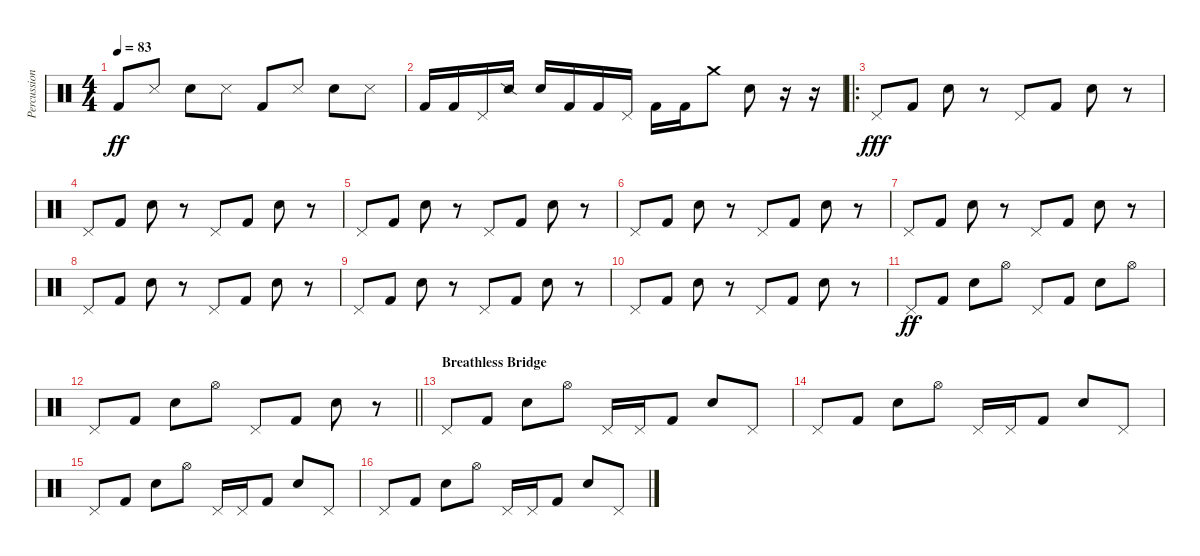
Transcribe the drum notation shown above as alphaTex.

\track ("Percussion" "Percussion") {instrument percussion}
\staff {score}
\articulation defaults
\ts (4 4)
\tempo 83
\clef neutral
\ks c "Kick (hit) 2".8{dy ff} "Snare (side stick) 3".8 "Hand Clap (hit)".8 "Snare (side stick) 3".8 "Kick (hit) 2".8 "Snare (side stick) 3".8 "Hand Clap (hit)".8 "Snare (side stick) 3".8
|
"Kick (hit) 2".16 "Kick (hit) 2".16 "Pedal Hi-Hat (hit)".16 "Snare (side stick) 2".16 "Snare (hit) 2".16 "Kick (hit) 2".16 "Kick (hit) 2".16 "Pedal Hi-Hat (hit)".16 "Kick (hit) 2".16 "Kick (hit) 2".16 "Crash medium (hit)".8 "Hand Clap (hit)".8 r.16 r.16 |
\ro "Pedal Hi-Hat (hit)".8{dy fff} "Kick (hit) 2".8 "Hand Clap (hit)".8
r.8 "Pedal Hi-Hat (hit)".8 "Kick (hit) 2".8 "Hand Clap (hit)".8 r.8 |
"Pedal Hi-Hat (hit)".8 "Kick (hit) 2".8 "Hand Clap (hit)".8 r.8 "Pedal Hi-Hat (hit)".8 "Kick (hit) 2".8 "Hand Clap (hit)".8 r.8 |
"Pedal Hi-Hat (hit)".8 "Kick (hit) 2".8 "Hand Clap (hit)".8 r.8 "Pedal Hi-Hat (hit)".8 "Kick (hit) 2".8 "Hand Clap (hit)".8 r.8 |
"Pedal Hi-Hat (hit)".8 "Kick (hit) 2".8 "Hand Clap (hit)".8 r.8 "Pedal Hi-Hat (hit)".8 "Kick (hit) 2".8 "Hand Clap (hit)".8 r.8 |
"Pedal Hi-Hat (hit)".8 "Kick (hit) 2".8 "Hand Clap (hit)".8 r.8 "Pedal Hi-Hat (hit)".8 "Kick (hit) 2".8 "Hand Clap (hit)".8 r.8 |
"Pedal Hi-Hat (hit)".8 "Kick (hit) 2".8 "Hand Clap (hit)".8 r.8 "Pedal Hi-Hat (hit)".8 "Kick (hit) 2".8 "Hand Clap (hit)".8 r.8 |
"Pedal Hi-Hat (hit)".8 "Kick (hit) 2".8 "Hand Clap (hit)".8 r.8 "Pedal Hi-Hat (hit)".8 "Kick (hit) 2".8 "Hand Clap (hit)".8 r.8 |
"Pedal Hi-Hat (hit)".8 "Kick (hit) 2".8 "Hand Clap (hit)".8 r.8 "Pedal Hi-Hat (hit)".8 "Kick (hit) 2".8 "Hand Clap (hit)".8 r.8 |
"Pedal Hi-Hat (hit)".8{dy ff} "Kick (hit) 2".8 "Hand Clap (hit)".8 "Hi-Hat (open)".8 "Pedal Hi-Hat (hit)".8 "Kick (hit) 2".8 "Hand Clap (hit)".8 "Hi-Hat (open)".8 |
\barLineRight lightlight "Pedal Hi-Hat (hit)".8 "Kick (hit) 2".8 "Hand Clap (hit)".8 "Hi-Hat (open)".8 "Pedal Hi-Hat (hit)".8 "Kick (hit) 2".8 "Hand Clap (hit)".8
r.8 |
\section ("" "Breathless Bridge")
"Pedal Hi-Hat (hit)".8 "Kick (hit) 2".8 "Hand Clap (hit)".8 "Hi-Hat (open)".8 "Pedal Hi-Hat (hit)".16 "Pedal Hi-Hat (hit)".16 "Kick (hit) 2".8 "Hand Clap (hit)".8 "Pedal Hi-Hat (hit)".8 |
"Pedal Hi-Hat (hit)".8 "Kick (hit) 2".8 "Hand Clap (hit)".8 "Hi-Hat (open)".8 "Pedal Hi-Hat (hit)".16 "Pedal Hi-Hat (hit)".16 "Kick (hit) 2".8 "Hand Clap (hit)".8 "Pedal Hi-Hat (hit)".8 |
"Pedal Hi-Hat (hit)".8 "Kick (hit) 2".8 "Hand Clap (hit)".8 "Hi-Hat (open)".8 "Pedal Hi-Hat (hit)".16 "Pedal Hi-Hat (hit)".16 "Kick (hit) 2".8 "Hand Clap (hit)".8 "Pedal Hi-Hat (hit)".8 |
"Pedal Hi-Hat (hit)".8 "Kick (hit) 2".8 "Hand Clap (hit)".8 "Hi-Hat (open)".8 "Pedal Hi-Hat (hit)".16 "Pedal Hi-Hat (hit)".16 "Kick (hit) 2".8 "Hand Clap (hit)".8 "Pedal Hi-Hat (hit)".8
